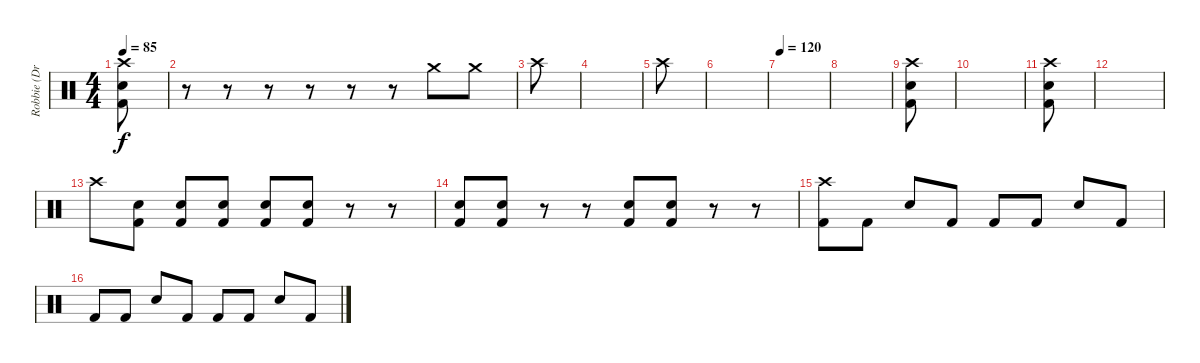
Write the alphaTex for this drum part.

\track ("Robbie (Drums)" "Robbie (Dr") {instrument percussion}
\staff {score}
\articulation defaults
\ts (4 4)
\tempo 85
\clef neutral
\ks c
("Crash high (hit)" "Electric Snare (hit)" "Kick (hit) 2").8{dy f} |
r.8 r.8 r.8 r.8 r.8 r.8 "Crash medium (hit)".8 "Crash medium (hit)".8 |
"Crash high (hit)".8 |
|
"Crash high (hit)".8 |
|
\tempo 120
|
|
("Kick (hit) 2" "Electric Snare (hit)" "Crash high (hit)").8 |
|
("Kick (hit) 2" "Electric Snare (hit)" "Crash high (hit)").8 |
|
"Crash high (hit)".8 ("Electric Snare (hit)" "Kick (hit) 2").8 ("Electric Snare (hit)" "Kick (hit) 2").8 ("Electric Snare (hit)" "Kick (hit) 2").8 ("Electric Snare (hit)" "Kick (hit) 2").8 ("Electric Snare (hit)" "Kick (hit) 2").8 r.8 r.8 |
("Electric Snare (hit)" "Kick (hit) 2").8 ("Electric Snare (hit)" "Kick (hit) 2").8 r.8 r.8 ("Electric Snare (hit)" "Kick (hit) 2").8 ("Electric Snare (hit)" "Kick (hit) 2").8 r.8 r.8 |
("Crash high (hit)" "Kick (hit) 2").8 "Kick (hit) 2".8 "Electric Snare (hit)".8 "Kick (hit) 2".8 "Kick (hit) 2".8 "Kick (hit) 2".8 "Electric Snare (hit)".8 "Kick (hit) 2".8 |
"Kick (hit) 2".8 "Kick (hit) 2".8 "Electric Snare (hit)".8 "Kick (hit) 2".8 "Kick (hit) 2".8 "Kick (hit) 2".8 "Electric Snare (hit)".8 "Kick (hit) 2".8
